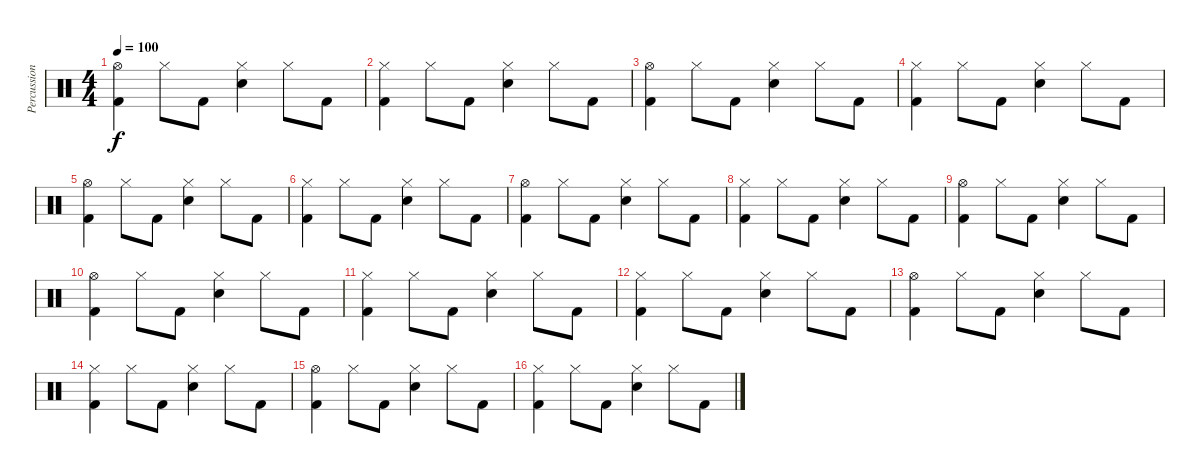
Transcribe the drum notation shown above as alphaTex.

\track ("Percussion" "Percussion") {instrument percussion}
\staff {score}
\articulation defaults
\ts (4 4)
\tempo 100
\clef neutral
\ks c
("Hi-Hat (open)" "Kick (hit) 2").4{dy f} "Hi-Hat (closed)".8 "Kick (hit) 2".8 ("Hi-Hat (closed)" "Snare (hit) 2").4 "Hi-Hat (closed)".8 "Kick (hit) 2".8 |
("Hi-Hat (closed)" "Kick (hit) 2").4 "Hi-Hat (closed)".8 "Kick (hit) 2".8 ("Hi-Hat (closed)" "Snare (hit) 2").4 "Hi-Hat (closed)".8 "Kick (hit) 2".8 |
("Hi-Hat (open)" "Kick (hit) 2").4 "Hi-Hat (closed)".8 "Kick (hit) 2".8 ("Hi-Hat (closed)" "Snare (hit) 2").4 "Hi-Hat (closed)".8 "Kick (hit) 2".8 |
("Hi-Hat (closed)" "Kick (hit) 2").4 "Hi-Hat (closed)".8 "Kick (hit) 2".8 ("Hi-Hat (closed)" "Snare (hit) 2").4 "Hi-Hat (closed)".8 "Kick (hit) 2".8 |
("Hi-Hat (open)" "Kick (hit) 2").4 "Hi-Hat (closed)".8 "Kick (hit) 2".8 ("Hi-Hat (closed)" "Snare (hit) 2").4 "Hi-Hat (closed)".8 "Kick (hit) 2".8 |
("Hi-Hat (closed)" "Kick (hit) 2").4 "Hi-Hat (closed)".8 "Kick (hit) 2".8 ("Hi-Hat (closed)" "Snare (hit) 2").4 "Hi-Hat (closed)".8 "Kick (hit) 2".8 |
("Hi-Hat (open)" "Kick (hit) 2").4 "Hi-Hat (closed)".8 "Kick (hit) 2".8 ("Hi-Hat (closed)" "Snare (hit) 2").4 "Hi-Hat (closed)".8 "Kick (hit) 2".8 |
("Hi-Hat (closed)" "Kick (hit) 2").4 "Hi-Hat (closed)".8 "Kick (hit) 2".8 ("Hi-Hat (closed)" "Snare (hit) 2").4 "Hi-Hat (closed)".8 "Kick (hit) 2".8 |
("Hi-Hat (open)" "Kick (hit) 2").4 "Hi-Hat (closed)".8 "Kick (hit) 2".8 ("Hi-Hat (closed)" "Snare (hit) 2").4 "Hi-Hat (closed)".8 "Kick (hit) 2".8 |
("Hi-Hat (open)" "Kick (hit) 2").4 "Hi-Hat (closed)".8 "Kick (hit) 2".8 ("Hi-Hat (closed)" "Snare (hit) 2").4 "Hi-Hat (closed)".8 "Kick (hit) 2".8 |
("Hi-Hat (closed)" "Kick (hit) 2").4 "Hi-Hat (closed)".8 "Kick (hit) 2".8 ("Hi-Hat (closed)" "Snare (hit) 2").4 "Hi-Hat (closed)".8 "Kick (hit) 2".8 |
("Hi-Hat (closed)" "Kick (hit) 2").4 "Hi-Hat (closed)".8 "Kick (hit) 2".8 ("Hi-Hat (closed)" "Snare (hit) 2").4 "Hi-Hat (closed)".8 "Kick (hit) 2".8 |
("Hi-Hat (open)" "Kick (hit) 2").4 "Hi-Hat (closed)".8 "Kick (hit) 2".8 ("Hi-Hat (closed)" "Snare (hit) 2").4 "Hi-Hat (closed)".8 "Kick (hit) 2".8 |
("Hi-Hat (closed)" "Kick (hit) 2").4 "Hi-Hat (closed)".8 "Kick (hit) 2".8 ("Hi-Hat (closed)" "Snare (hit) 2").4 "Hi-Hat (closed)".8 "Kick (hit) 2".8 |
("Hi-Hat (open)" "Kick (hit) 2").4 "Hi-Hat (closed)".8 "Kick (hit) 2".8 ("Hi-Hat (closed)" "Snare (hit) 2").4 "Hi-Hat (closed)".8 "Kick (hit) 2".8 |
("Hi-Hat (closed)" "Kick (hit) 2").4 "Hi-Hat (closed)".8 "Kick (hit) 2".8 ("Hi-Hat (closed)" "Snare (hit) 2").4 "Hi-Hat (closed)".8 "Kick (hit) 2".8
